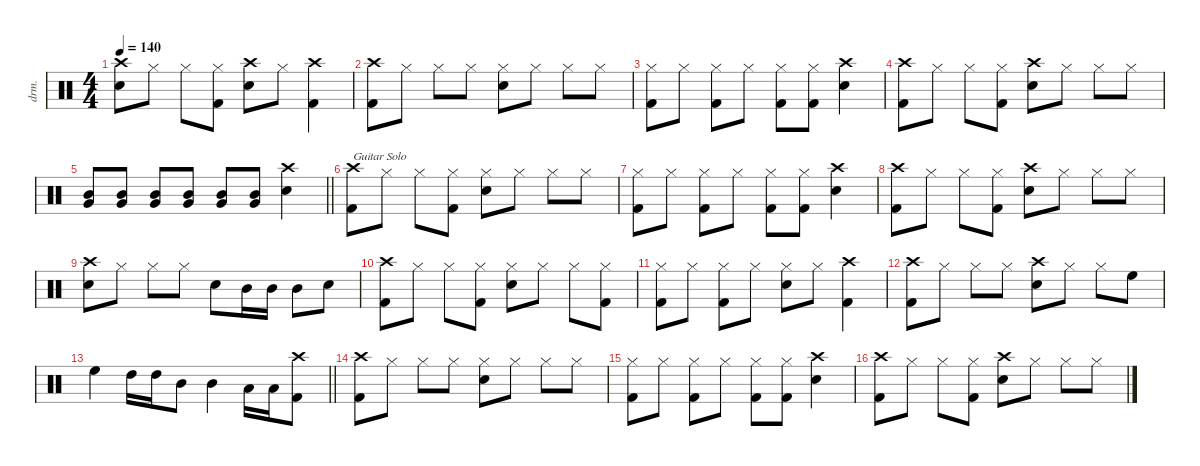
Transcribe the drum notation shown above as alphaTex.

\defaultSystemsLayout 4
\hideDynamics
\bracketExtendMode nobrackets
\otherSystemsTrackNameOrientation horizontal
\track ("Drums" "drm.") {defaultSystemsLayout 4 instrument percussion}
\staff {score}
\articulation defaults
\ts (4 4)
\tempo 140
\clef neutral
\ks aminor
("Crash high (hit)" "Snare (hit) 2").8{dy f beam Down} "Hi-Hat (closed)".8{beam Down} "Hi-Hat (closed)".8{beam Down} ("Hi-Hat (closed)" "Kick (hit) 2").8{beam Down} ("Crash high (hit)" "Snare (hit) 2").8{beam Down} "Hi-Hat (closed)".8{beam Down} ("Crash high (hit)" "Kick (hit) 2").4{beam Down} |
("Crash high (hit)" "Kick (hit) 2").8{beam Down} "Hi-Hat (closed)".8{beam Down} "Hi-Hat (closed)".8{beam Down} "Hi-Hat (closed)".8{beam Down} ("Hi-Hat (closed)" "Snare (hit) 2").8{beam Down} "Hi-Hat (closed)".8{beam Down} "Hi-Hat (closed)".8{beam Down} "Hi-Hat (closed)".8{beam Down} |
("Hi-Hat (closed)" "Kick (hit) 2").8{beam Down} "Hi-Hat (closed)".8{beam Down} ("Hi-Hat (closed)" "Kick (hit) 2").8{beam Down} "Hi-Hat (closed)".8{beam Down} ("Hi-Hat (closed)" "Kick (hit) 2").8{beam Down} ("Hi-Hat (closed)" "Kick (hit) 2").8{beam Down} ("Crash high (hit)" "Snare (hit) 2").4{beam Down} |
("Crash high (hit)" "Kick (hit) 2").8{beam Down} "Hi-Hat (closed)".8{beam Down} "Hi-Hat (closed)".8{beam Down} ("Hi-Hat (closed)" "Kick (hit) 2").8{beam Down} ("Crash high (hit)" "Snare (hit) 2").8{beam Down} "Hi-Hat (closed)".8{beam Down} "Hi-Hat (closed)".8{beam Down} "Hi-Hat (closed)".8{beam Down} |
\barLineRight lightlight
("Mid Tom (hit)" "Very Low Tom (hit)").8{beam Up} ("Mid Tom (hit)" "Very Low Tom (hit)").8{beam Up} ("Mid Tom (hit)" "Very Low Tom (hit)").8{beam Up} ("Mid Tom (hit)" "Very Low Tom (hit)").8{beam Up} ("Mid Tom (hit)" "Very Low Tom (hit)").8{beam Up} ("Mid Tom (hit)" "Very Low Tom (hit)").8{beam Up} ("Crash high (hit)" "Snare (hit) 2").4{beam Down} |
("Crash high (hit)" "Kick (hit) 2").8{txt "Guitar Solo" beam Down} "Hi-Hat (closed)".8{beam Down} "Hi-Hat (closed)".8{beam Down} ("Hi-Hat (closed)" "Kick (hit) 2").8{beam Down} ("Hi-Hat (closed)" "Snare (hit) 2").8{beam Down} "Hi-Hat (closed)".8{beam Down} "Hi-Hat (closed)".8{beam Down} "Hi-Hat (closed)".8{beam Down} |
("Hi-Hat (closed)" "Kick (hit) 2").8{beam Down} "Hi-Hat (closed)".8{beam Down} ("Hi-Hat (closed)" "Kick (hit) 2").8{beam Down} "Hi-Hat (closed)".8{beam Down} ("Hi-Hat (closed)" "Kick (hit) 2").8{beam Down} ("Hi-Hat (closed)" "Kick (hit) 2").8{beam Down} ("Crash high (hit)" "Snare (hit) 2").4{beam Down} |
("Crash high (hit)" "Kick (hit) 2").8{beam Down} "Hi-Hat (closed)".8{beam Down} "Hi-Hat (closed)".8{beam Down} ("Hi-Hat (closed)" "Kick (hit) 2").8{beam Down} ("Crash high (hit)" "Snare (hit) 2").8{beam Down} "Hi-Hat (closed)".8{beam Down} "Hi-Hat (closed)".8{beam Down} "Hi-Hat (closed)".8{beam Down} |
("Crash high (hit)" "Snare (hit) 2").8{beam Down} "Hi-Hat (closed)".8{beam Down} "Hi-Hat (closed)".8{beam Down} "Hi-Hat (closed)".8{beam Down} "Snare (hit) 2".8{dy fff beam Down} "Mid Tom (hit)".16{dy f beam Down} "Mid Tom (hit)".16{beam Down} "Mid Tom (hit)".8{beam Down} "Snare (hit) 2".8{beam Down} |
("Crash high (hit)" "Kick (hit) 2").8{beam Down} "Hi-Hat (closed)".8{beam Down} "Hi-Hat (closed)".8{beam Down} ("Hi-Hat (closed)" "Kick (hit) 2").8{beam Down} ("Hi-Hat (closed)" "Snare (hit) 2").8{beam Down} "Hi-Hat (closed)".8{beam Down} "Hi-Hat (closed)".8{beam Down} ("Hi-Hat (closed)" "Kick (hit) 2").8{beam Down} |
("Hi-Hat (closed)" "Kick (hit) 2").8{beam Down} "Hi-Hat (closed)".8{beam Down} ("Hi-Hat (closed)" "Kick (hit) 2").8{beam Down} "Hi-Hat (closed)".8{beam Down} ("Hi-Hat (closed)" "Snare (hit) 2").8{beam Down} "Hi-Hat (closed)".8{beam Down} ("Crash high (hit)" "Kick (hit) 2").4{beam Down} |
("Crash high (hit)" "Kick (hit) 2").8{beam Down} "Hi-Hat (closed)".8{beam Down} "Hi-Hat (closed)".8{beam Down} "Hi-Hat (closed)".8{beam Down} ("Crash high (hit)" "Snare (hit) 2").8{beam Down} "Hi-Hat (closed)".8{beam Down} "Hi-Hat (closed)".8{beam Down} "High Floor Tom (hit)".8{beam Down} |
\barLineRight lightlight "High Floor Tom (hit)".4{beam Down} "High Tom (hit)".16{beam Down} "High Tom (hit)".16{beam Down} "Mid Tom (hit)".8{beam Down} "Mid Tom (hit)".4{beam Down} "Low Tom (hit)".16{beam Down} "Low Tom (hit)".16{beam Down}
("Crash high (hit)" "Kick (hit) 2").8{beam Down} |
("Crash high (hit)" "Kick (hit) 2").8{beam Down} "Hi-Hat (closed)".8{beam Down} "Hi-Hat (closed)".8{beam Down} "Hi-Hat (closed)".8{beam Down} ("Hi-Hat (closed)" "Snare (hit) 2").8{beam Down} "Hi-Hat (closed)".8{beam Down} "Hi-Hat (closed)".8{beam Down} "Hi-Hat (closed)".8{beam Down} |
("Hi-Hat (closed)" "Kick (hit) 2").8{beam Down} "Hi-Hat (closed)".8{beam Down} ("Hi-Hat (closed)" "Kick (hit) 2").8{beam Down} "Hi-Hat (closed)".8{beam Down} ("Hi-Hat (closed)" "Kick (hit) 2").8{beam Down} ("Hi-Hat (closed)" "Kick (hit) 2").8{beam Down} ("Crash high (hit)" "Snare (hit) 2").4{beam Down} |
("Crash high (hit)" "Kick (hit) 2").8{beam Down} "Hi-Hat (closed)".8{beam Down} "Hi-Hat (closed)".8{beam Down} ("Hi-Hat (closed)" "Kick (hit) 2").8{beam Down} ("Crash high (hit)" "Snare (hit) 2").8{beam Down} "Hi-Hat (closed)".8{beam Down} "Hi-Hat (closed)".8{beam Down} "Hi-Hat (closed)".8{beam Down}
